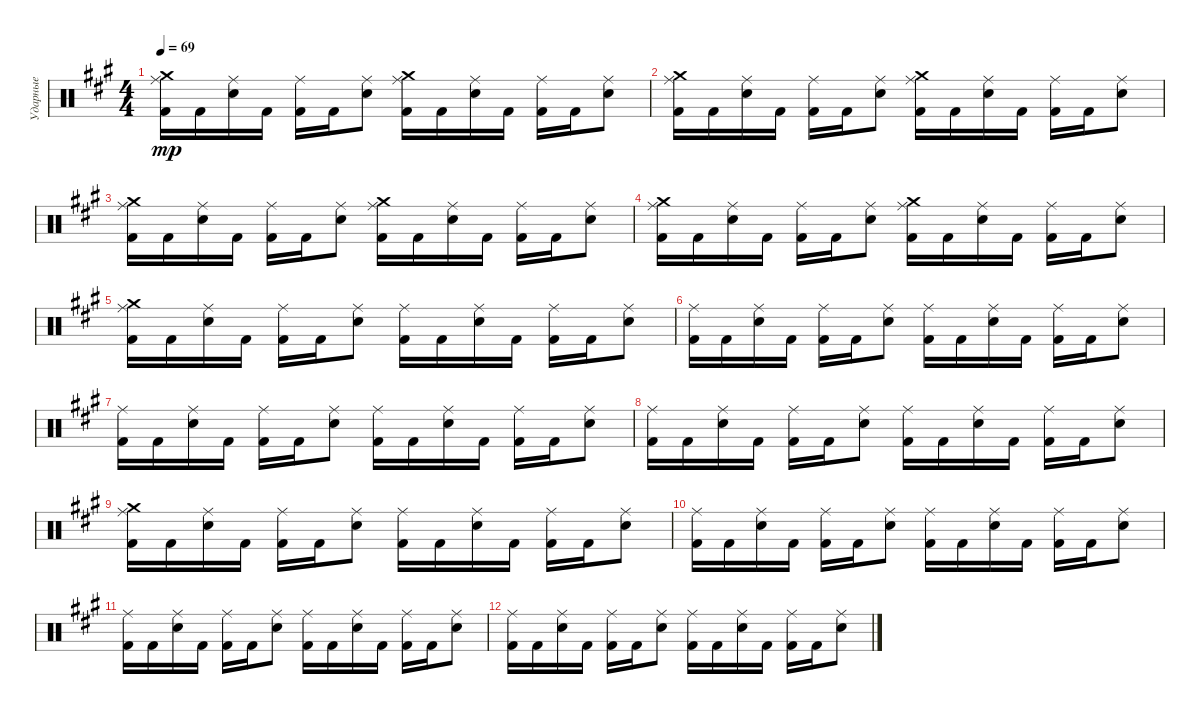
\track ("Ударные" "Ударные") {instrument percussion}
\staff {score}
\articulation defaults
\ts (4 4)
\tempo 69
\clef neutral
\ks a
("Kick (hit) 2" "Ride (middle)" "Crash medium (hit)").16{dy mp} "Kick (hit) 2".16 ("Electric Snare (hit)" "Ride (middle)").16 "Kick (hit) 2".16 ("Kick (hit) 2" "Ride (middle)").16 "Kick (hit) 2".16 ("Electric Snare (hit)" "Ride (middle)").8 ("Kick (hit) 2" "Ride (middle)" "Crash medium (hit)").16 "Kick (hit) 2".16 ("Electric Snare (hit)" "Ride (middle)").16 "Kick (hit) 2".16 ("Kick (hit) 2" "Ride (middle)").16 "Kick (hit) 2".16 ("Electric Snare (hit)" "Ride (middle)").8 |
("Kick (hit) 2" "Ride (middle)" "Crash medium (hit)").16 "Kick (hit) 2".16 ("Electric Snare (hit)" "Ride (middle)").16 "Kick (hit) 2".16 ("Kick (hit) 2" "Ride (middle)").16 "Kick (hit) 2".16 ("Electric Snare (hit)" "Ride (middle)").8 ("Kick (hit) 2" "Ride (middle)" "Crash medium (hit)").16 "Kick (hit) 2".16 ("Electric Snare (hit)" "Ride (middle)").16 "Kick (hit) 2".16 ("Kick (hit) 2" "Ride (middle)").16 "Kick (hit) 2".16 ("Electric Snare (hit)" "Ride (middle)").8 |
("Kick (hit) 2" "Ride (middle)" "Crash medium (hit)").16 "Kick (hit) 2".16 ("Electric Snare (hit)" "Ride (middle)").16 "Kick (hit) 2".16 ("Kick (hit) 2" "Ride (middle)").16 "Kick (hit) 2".16 ("Electric Snare (hit)" "Ride (middle)").8 ("Kick (hit) 2" "Ride (middle)" "Crash medium (hit)").16 "Kick (hit) 2".16 ("Electric Snare (hit)" "Ride (middle)").16 "Kick (hit) 2".16 ("Kick (hit) 2" "Ride (middle)").16 "Kick (hit) 2".16 ("Electric Snare (hit)" "Ride (middle)").8 |
("Kick (hit) 2" "Ride (middle)" "Crash medium (hit)").16 "Kick (hit) 2".16 ("Electric Snare (hit)" "Ride (middle)").16 "Kick (hit) 2".16 ("Kick (hit) 2" "Ride (middle)").16 "Kick (hit) 2".16 ("Electric Snare (hit)" "Ride (middle)").8 ("Kick (hit) 2" "Ride (middle)" "Crash medium (hit)").16 "Kick (hit) 2".16 ("Electric Snare (hit)" "Ride (middle)").16 "Kick (hit) 2".16 ("Kick (hit) 2" "Ride (middle)").16 "Kick (hit) 2".16 ("Electric Snare (hit)" "Ride (middle)").8 |
("Kick (hit) 2" "Ride (middle)" "Crash medium (hit)").16 "Kick (hit) 2".16 ("Electric Snare (hit)" "Ride (middle)").16 "Kick (hit) 2".16 ("Kick (hit) 2" "Ride (middle)").16 "Kick (hit) 2".16 ("Electric Snare (hit)" "Ride (middle)").8 ("Kick (hit) 2" "Ride (middle)").16 "Kick (hit) 2".16 ("Electric Snare (hit)" "Ride (middle)").16 "Kick (hit) 2".16 ("Kick (hit) 2" "Ride (middle)").16 "Kick (hit) 2".16 ("Electric Snare (hit)" "Ride (middle)").8 |
("Kick (hit) 2" "Ride (middle)").16 "Kick (hit) 2".16 ("Electric Snare (hit)" "Ride (middle)").16 "Kick (hit) 2".16 ("Kick (hit) 2" "Ride (middle)").16 "Kick (hit) 2".16 ("Electric Snare (hit)" "Ride (middle)").8 ("Kick (hit) 2" "Ride (middle)").16 "Kick (hit) 2".16 ("Electric Snare (hit)" "Ride (middle)").16 "Kick (hit) 2".16 ("Kick (hit) 2" "Ride (middle)").16 "Kick (hit) 2".16 ("Electric Snare (hit)" "Ride (middle)").8 |
("Kick (hit) 2" "Ride (middle)").16 "Kick (hit) 2".16 ("Electric Snare (hit)" "Ride (middle)").16 "Kick (hit) 2".16 ("Kick (hit) 2" "Ride (middle)").16 "Kick (hit) 2".16 ("Electric Snare (hit)" "Ride (middle)").8 ("Kick (hit) 2" "Ride (middle)").16 "Kick (hit) 2".16 ("Electric Snare (hit)" "Ride (middle)").16 "Kick (hit) 2".16 ("Kick (hit) 2" "Ride (middle)").16 "Kick (hit) 2".16 ("Electric Snare (hit)" "Ride (middle)").8 |
("Kick (hit) 2" "Ride (middle)").16 "Kick (hit) 2".16 ("Electric Snare (hit)" "Ride (middle)").16 "Kick (hit) 2".16 ("Kick (hit) 2" "Ride (middle)").16 "Kick (hit) 2".16 ("Electric Snare (hit)" "Ride (middle)").8 ("Kick (hit) 2" "Ride (middle)").16 "Kick (hit) 2".16 ("Electric Snare (hit)" "Ride (middle)").16 "Kick (hit) 2".16 ("Kick (hit) 2" "Ride (middle)").16 "Kick (hit) 2".16 ("Electric Snare (hit)" "Ride (middle)").8 |
("Kick (hit) 2" "Ride (middle)" "Crash medium (hit)").16 "Kick (hit) 2".16 ("Electric Snare (hit)" "Ride (middle)").16 "Kick (hit) 2".16 ("Kick (hit) 2" "Ride (middle)").16 "Kick (hit) 2".16 ("Electric Snare (hit)" "Ride (middle)").8 ("Kick (hit) 2" "Ride (middle)").16 "Kick (hit) 2".16 ("Electric Snare (hit)" "Ride (middle)").16 "Kick (hit) 2".16 ("Kick (hit) 2" "Ride (middle)").16 "Kick (hit) 2".16 ("Electric Snare (hit)" "Ride (middle)").8 |
("Kick (hit) 2" "Ride (middle)").16 "Kick (hit) 2".16 ("Electric Snare (hit)" "Ride (middle)").16 "Kick (hit) 2".16 ("Kick (hit) 2" "Ride (middle)").16 "Kick (hit) 2".16 ("Electric Snare (hit)" "Ride (middle)").8 ("Kick (hit) 2" "Ride (middle)").16 "Kick (hit) 2".16 ("Electric Snare (hit)" "Ride (middle)").16 "Kick (hit) 2".16 ("Kick (hit) 2" "Ride (middle)").16 "Kick (hit) 2".16 ("Electric Snare (hit)" "Ride (middle)").8 |
("Kick (hit) 2" "Ride (middle)").16 "Kick (hit) 2".16 ("Electric Snare (hit)" "Ride (middle)").16 "Kick (hit) 2".16 ("Kick (hit) 2" "Ride (middle)").16 "Kick (hit) 2".16 ("Electric Snare (hit)" "Ride (middle)").8 ("Kick (hit) 2" "Ride (middle)").16 "Kick (hit) 2".16 ("Electric Snare (hit)" "Ride (middle)").16 "Kick (hit) 2".16 ("Kick (hit) 2" "Ride (middle)").16 "Kick (hit) 2".16 ("Electric Snare (hit)" "Ride (middle)").8 |
("Kick (hit) 2" "Ride (middle)").16 "Kick (hit) 2".16 ("Electric Snare (hit)" "Ride (middle)").16 "Kick (hit) 2".16 ("Kick (hit) 2" "Ride (middle)").16 "Kick (hit) 2".16 ("Electric Snare (hit)" "Ride (middle)").8 ("Kick (hit) 2" "Ride (middle)").16 "Kick (hit) 2".16 ("Electric Snare (hit)" "Ride (middle)").16 "Kick (hit) 2".16 ("Kick (hit) 2" "Ride (middle)").16 "Kick (hit) 2".16 ("Electric Snare (hit)" "Ride (middle)").8
